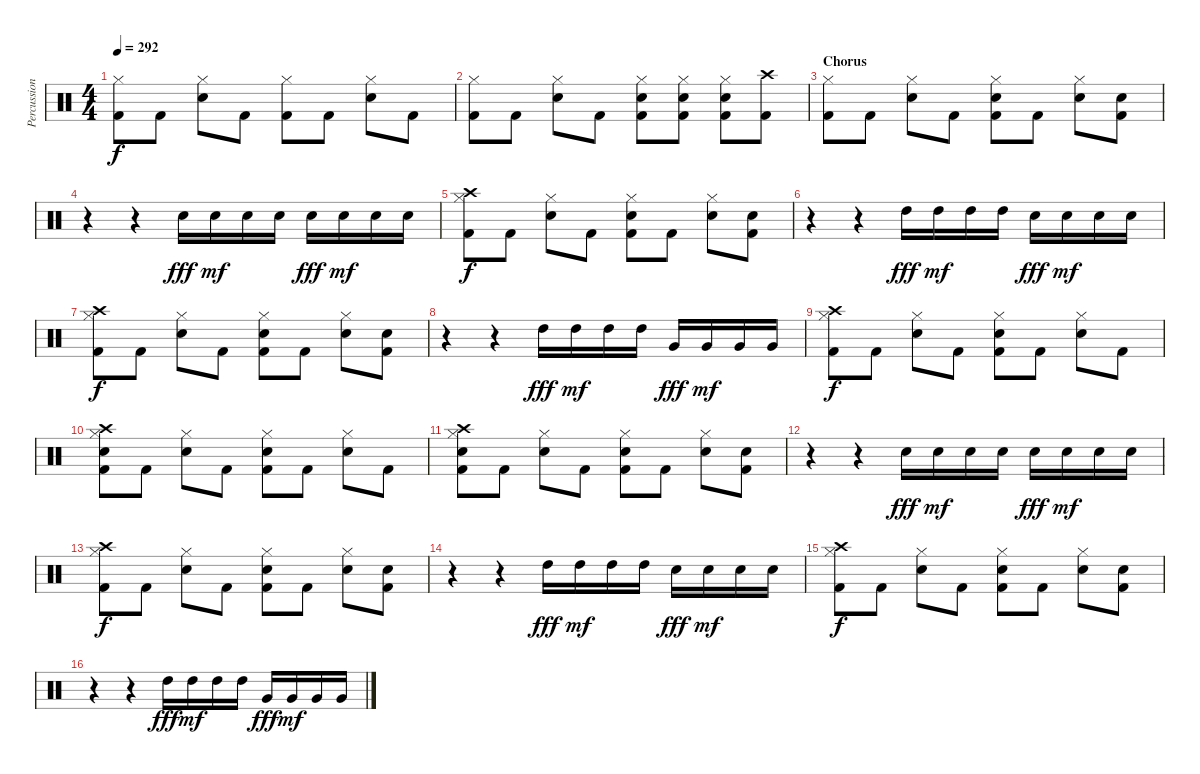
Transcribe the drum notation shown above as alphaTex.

\track ("Percussion" "Percussion") {instrument percussion}
\staff {score}
\articulation defaults
\ts (4 4)
\tempo 292
\clef neutral
\ks c
("Hi-Hat (closed)" "Kick (hit) 2").8{dy f} "Kick (hit) 2".8 ("Hi-Hat (closed)" "Electric Snare (hit)").8 "Kick (hit) 2".8 ("Hi-Hat (closed)" "Kick (hit) 2").8 "Kick (hit) 2".8 ("Hi-Hat (closed)" "Electric Snare (hit)").8 "Kick (hit) 2".8 |
("Hi-Hat (closed)" "Kick (hit) 2").8 "Kick (hit) 2".8 ("Hi-Hat (closed)" "Electric Snare (hit)").8 "Kick (hit) 2".8 ("Hi-Hat (closed)" "Electric Snare (hit)" "Kick (hit) 2").8 ("Hi-Hat (closed)" "Electric Snare (hit)" "Kick (hit) 2").8 ("Hi-Hat (closed)" "Electric Snare (hit)" "Kick (hit) 2").8 ("Crash high (hit)" "Kick (hit) 2").8 |
\section ("" "Chorus")
("Hi-Hat (closed)" "Kick (hit) 2").8 "Kick (hit) 2".8 ("Hi-Hat (closed)" "Electric Snare (hit)").8 "Kick (hit) 2".8 ("Hi-Hat (closed)" "Electric Snare (hit)" "Kick (hit) 2").8 "Kick (hit) 2".8 ("Hi-Hat (closed)" "Electric Snare (hit)").8 ("Electric Snare (hit)" "Kick (hit) 2").8 |
r.4 r.4 "Electric Snare (hit)".16{dy fff} "Electric Snare (hit)".16{dy mf} "Electric Snare (hit)".16 "Electric Snare (hit)".16 "Electric Snare (hit)".16{dy fff} "Electric Snare (hit)".16{dy mf} "Electric Snare (hit)".16 "Electric Snare (hit)".16 |
("Crash high (hit)" "Hi-Hat (closed)" "Kick (hit) 2").8{dy f} "Kick (hit) 2".8 ("Hi-Hat (closed)" "Electric Snare (hit)").8 "Kick (hit) 2".8 ("Hi-Hat (closed)" "Electric Snare (hit)" "Kick (hit) 2").8 "Kick (hit) 2".8 ("Hi-Hat (closed)" "Electric Snare (hit)").8 ("Electric Snare (hit)" "Kick (hit) 2").8 |
r.4 r.4 "High Tom (hit)".16{dy fff} "High Tom (hit)".16{dy mf} "High Tom (hit)".16 "High Tom (hit)".16 "Electric Snare (hit)".16{dy fff} "Electric Snare (hit)".16{dy mf} "Electric Snare (hit)".16 "Electric Snare (hit)".16 |
("Crash high (hit)" "Hi-Hat (closed)" "Kick (hit) 2").8{dy f} "Kick (hit) 2".8 ("Hi-Hat (closed)" "Electric Snare (hit)").8 "Kick (hit) 2".8 ("Hi-Hat (closed)" "Electric Snare (hit)" "Kick (hit) 2").8 "Kick (hit) 2".8 ("Hi-Hat (closed)" "Electric Snare (hit)").8 ("Electric Snare (hit)" "Kick (hit) 2").8 |
r.4 r.4 "High Tom (hit)".16{dy fff} "High Tom (hit)".16{dy mf} "High Tom (hit)".16 "High Tom (hit)".16 "Very Low Tom (hit)".16{dy fff} "Very Low Tom (hit)".16{dy mf} "Very Low Tom (hit)".16 "Very Low Tom (hit)".16 |
("Crash high (hit)" "Hi-Hat (closed)" "Kick (hit) 2").8{dy f} "Kick (hit) 2".8 ("Hi-Hat (closed)" "Electric Snare (hit)").8 "Kick (hit) 2".8 ("Hi-Hat (closed)" "Electric Snare (hit)" "Kick (hit) 2").8 "Kick (hit) 2".8 ("Hi-Hat (closed)" "Electric Snare (hit)").8 "Kick (hit) 2".8 |
("Crash high (hit)" "Hi-Hat (closed)" "Electric Snare (hit)" "Kick (hit) 2").8 "Kick (hit) 2".8 ("Hi-Hat (closed)" "Electric Snare (hit)").8 "Kick (hit) 2".8 ("Hi-Hat (closed)" "Electric Snare (hit)" "Kick (hit) 2").8 "Kick (hit) 2".8 ("Hi-Hat (closed)" "Electric Snare (hit)").8 "Kick (hit) 2".8 |
("Crash high (hit)" "Hi-Hat (closed)" "Electric Snare (hit)" "Kick (hit) 2").8 "Kick (hit) 2".8 ("Hi-Hat (closed)" "Electric Snare (hit)").8 "Kick (hit) 2".8 ("Hi-Hat (closed)" "Electric Snare (hit)" "Kick (hit) 2").8 "Kick (hit) 2".8 ("Hi-Hat (closed)" "Electric Snare (hit)").8 ("Electric Snare (hit)" "Kick (hit) 2").8 |
r.4 r.4 "Electric Snare (hit)".16{dy fff} "Electric Snare (hit)".16{dy mf} "Electric Snare (hit)".16 "Electric Snare (hit)".16 "Electric Snare (hit)".16{dy fff} "Electric Snare (hit)".16{dy mf} "Electric Snare (hit)".16 "Electric Snare (hit)".16 |
("Crash high (hit)" "Hi-Hat (closed)" "Kick (hit) 2").8{dy f} "Kick (hit) 2".8 ("Hi-Hat (closed)" "Electric Snare (hit)").8 "Kick (hit) 2".8 ("Hi-Hat (closed)" "Electric Snare (hit)" "Kick (hit) 2").8 "Kick (hit) 2".8 ("Hi-Hat (closed)" "Electric Snare (hit)").8 ("Electric Snare (hit)" "Kick (hit) 2").8 |
r.4 r.4 "High Tom (hit)".16{dy fff} "High Tom (hit)".16{dy mf} "High Tom (hit)".16 "High Tom (hit)".16 "Electric Snare (hit)".16{dy fff} "Electric Snare (hit)".16{dy mf} "Electric Snare (hit)".16 "Electric Snare (hit)".16 |
("Crash high (hit)" "Hi-Hat (closed)" "Kick (hit) 2").8{dy f} "Kick (hit) 2".8 ("Hi-Hat (closed)" "Electric Snare (hit)").8 "Kick (hit) 2".8 ("Hi-Hat (closed)" "Electric Snare (hit)" "Kick (hit) 2").8 "Kick (hit) 2".8 ("Hi-Hat (closed)" "Electric Snare (hit)").8 ("Electric Snare (hit)" "Kick (hit) 2").8 |
r.4 r.4 "High Tom (hit)".16{dy fff} "High Tom (hit)".16{dy mf} "High Tom (hit)".16 "High Tom (hit)".16 "Very Low Tom (hit)".16{dy fff} "Very Low Tom (hit)".16{dy mf} "Very Low Tom (hit)".16 "Very Low Tom (hit)".16
